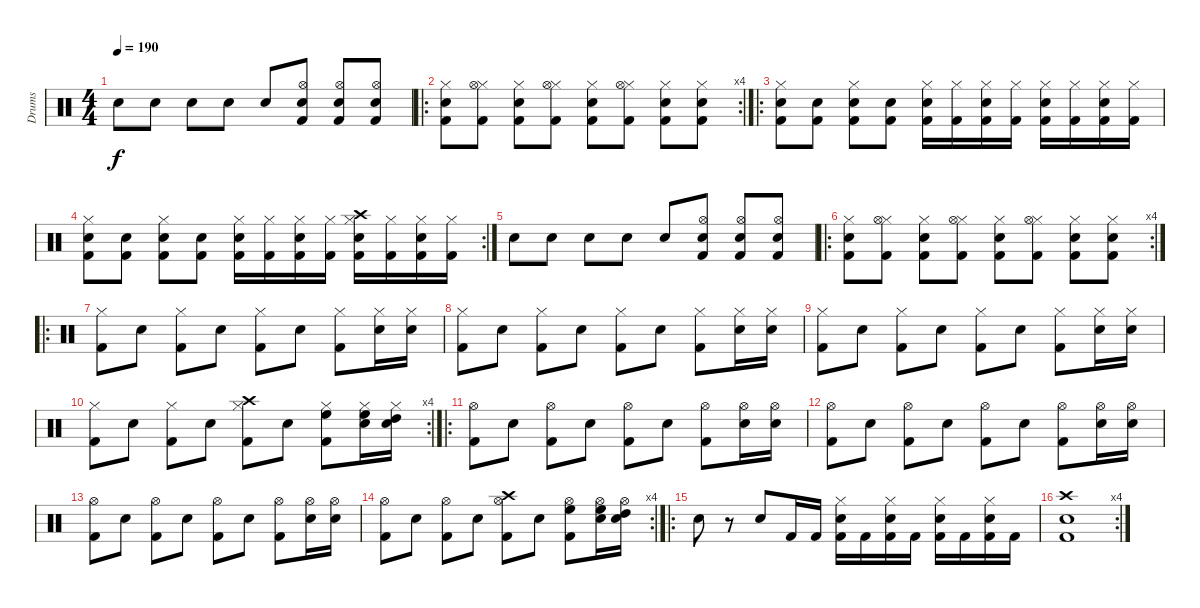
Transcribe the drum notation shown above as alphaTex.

\track ("Drums" "Drums") {instrument percussion}
\staff {score}
\articulation defaults
\ts (4 4)
\tempo 190
\clef neutral
\ks c "Electric Snare (hit)".8{dy f} "Electric Snare (hit)".8 "Electric Snare (hit)".8 "Electric Snare (hit)".8 "Electric Snare (hit)".8
("Electric Snare (hit)" "Hi-Hat (open)" "Kick (hit) 2").8 ("Electric Snare (hit)" "Hi-Hat (open)" "Kick (hit) 2").8 ("Electric Snare (hit)" "Hi-Hat (open)" "Kick (hit) 2").8 |
\ro
\rc 4
("Hi-Hat (closed)" "Electric Snare (hit)" "Kick (hit) 2").8 ("Hi-Hat (closed)" "Hi-Hat (open)" "Kick (hit) 2").8 ("Hi-Hat (closed)" "Electric Snare (hit)" "Kick (hit) 2").8 ("Hi-Hat (closed)" "Hi-Hat (open)" "Kick (hit) 2").8 ("Hi-Hat (closed)" "Electric Snare (hit)" "Kick (hit) 2").8 ("Hi-Hat (closed)" "Hi-Hat (open)" "Kick (hit) 2").8 ("Hi-Hat (closed)" "Electric Snare (hit)" "Kick (hit) 2").8 ("Hi-Hat (closed)" "Electric Snare (hit)" "Kick (hit) 2").8 |
\ro
("Electric Snare (hit)" "Hi-Hat (closed)" "Kick (hit) 2").8 ("Electric Snare (hit)" "Kick (hit) 2").8 ("Electric Snare (hit)" "Hi-Hat (closed)" "Kick (hit) 2").8 ("Electric Snare (hit)" "Kick (hit) 2").8 ("Electric Snare (hit)" "Hi-Hat (closed)" "Kick (hit) 2").16 ("Hi-Hat (closed)" "Kick (hit) 2").16 ("Electric Snare (hit)" "Hi-Hat (closed)" "Kick (hit) 2").16 ("Hi-Hat (closed)" "Kick (hit) 2").16 ("Electric Snare (hit)" "Hi-Hat (closed)" "Kick (hit) 2").16 ("Hi-Hat (closed)" "Kick (hit) 2").16 ("Electric Snare (hit)" "Hi-Hat (closed)" "Kick (hit) 2").16 ("Hi-Hat (closed)" "Kick (hit) 2").16 |
\rc 2
("Electric Snare (hit)" "Hi-Hat (closed)" "Kick (hit) 2").8 ("Electric Snare (hit)" "Kick (hit) 2").8 ("Electric Snare (hit)" "Hi-Hat (closed)" "Kick (hit) 2").8 ("Electric Snare (hit)" "Kick (hit) 2").8 ("Electric Snare (hit)" "Hi-Hat (closed)" "Kick (hit) 2").16 ("Hi-Hat (closed)" "Kick (hit) 2").16 ("Electric Snare (hit)" "Hi-Hat (closed)" "Kick (hit) 2").16 ("Hi-Hat (closed)" "Kick (hit) 2").16 ("Electric Snare (hit)" "Hi-Hat (closed)" "Crash high (hit)" "Kick (hit) 2").16 ("Hi-Hat (closed)" "Kick (hit) 2").16 ("Electric Snare (hit)" "Hi-Hat (closed)" "Kick (hit) 2").16 ("Hi-Hat (closed)" "Kick (hit) 2").16 |
"Electric Snare (hit)".8 "Electric Snare (hit)".8 "Electric Snare (hit)".8 "Electric Snare (hit)".8 "Electric Snare (hit)".8 ("Electric Snare (hit)" "Hi-Hat (open)" "Kick (hit) 2").8 ("Electric Snare (hit)" "Hi-Hat (open)" "Kick (hit) 2").8 ("Electric Snare (hit)" "Hi-Hat (open)" "Kick (hit) 2").8 |
\ro
\rc 4
("Hi-Hat (closed)" "Electric Snare (hit)" "Kick (hit) 2").8 ("Hi-Hat (closed)" "Hi-Hat (open)" "Kick (hit) 2").8 ("Hi-Hat (closed)" "Electric Snare (hit)" "Kick (hit) 2").8 ("Hi-Hat (closed)" "Hi-Hat (open)" "Kick (hit) 2").8 ("Hi-Hat (closed)" "Electric Snare (hit)" "Kick (hit) 2").8 ("Hi-Hat (closed)" "Hi-Hat (open)" "Kick (hit) 2").8 ("Hi-Hat (closed)" "Electric Snare (hit)" "Kick (hit) 2").8 ("Hi-Hat (closed)" "Electric Snare (hit)" "Kick (hit) 2").8 |
\ro
("Hi-Hat (closed)" "Kick (hit) 2").8 "Electric Snare (hit)".8 ("Hi-Hat (closed)" "Kick (hit) 2").8 "Electric Snare (hit)".8 ("Hi-Hat (closed)" "Kick (hit) 2").8 "Electric Snare (hit)".8 ("Hi-Hat (closed)" "Kick (hit) 2").8 ("Hi-Hat (closed)" "Electric Snare (hit)").16 ("Hi-Hat (closed)" "Electric Snare (hit)").16 |
("Hi-Hat (closed)" "Kick (hit) 2").8 "Electric Snare (hit)".8 ("Hi-Hat (closed)" "Kick (hit) 2").8 "Electric Snare (hit)".8 ("Hi-Hat (closed)" "Kick (hit) 2").8 "Electric Snare (hit)".8 ("Hi-Hat (closed)" "Kick (hit) 2").8 ("Hi-Hat (closed)" "Electric Snare (hit)").16 ("Hi-Hat (closed)" "Electric Snare (hit)").16 |
("Hi-Hat (closed)" "Kick (hit) 2").8 "Electric Snare (hit)".8 ("Hi-Hat (closed)" "Kick (hit) 2").8 "Electric Snare (hit)".8 ("Hi-Hat (closed)" "Kick (hit) 2").8 "Electric Snare (hit)".8 ("Hi-Hat (closed)" "Kick (hit) 2").8 ("Hi-Hat (closed)" "Electric Snare (hit)").16 ("Hi-Hat (closed)" "Electric Snare (hit)").16 |
\rc 4
("Hi-Hat (closed)" "Kick (hit) 2").8 "Electric Snare (hit)".8 ("Hi-Hat (closed)" "Kick (hit) 2").8 "Electric Snare (hit)".8 ("Hi-Hat (closed)" "Crash high (hit)" "Kick (hit) 2").8 "Electric Snare (hit)".8 ("Hi-Hat (closed)" "High Floor Tom (hit)" "Kick (hit) 2").8 ("Hi-Hat (closed)" "High Floor Tom (hit)" "Electric Snare (hit)").16 ("Hi-Hat (closed)" "High Tom (hit)" "Electric Snare (hit)").16 |
\ro
("Hi-Hat (open)" "Kick (hit) 2").8 "Electric Snare (hit)".8 ("Hi-Hat (open)" "Kick (hit) 2").8 "Electric Snare (hit)".8 ("Hi-Hat (open)" "Kick (hit) 2").8 "Electric Snare (hit)".8 ("Hi-Hat (open)" "Kick (hit) 2").8 ("Hi-Hat (open)" "Electric Snare (hit)").16 ("Hi-Hat (open)" "Electric Snare (hit)").16 |
("Hi-Hat (open)" "Kick (hit) 2").8 "Electric Snare (hit)".8 ("Hi-Hat (open)" "Kick (hit) 2").8 "Electric Snare (hit)".8 ("Hi-Hat (open)" "Kick (hit) 2").8 "Electric Snare (hit)".8 ("Hi-Hat (open)" "Kick (hit) 2").8 ("Hi-Hat (open)" "Electric Snare (hit)").16 ("Hi-Hat (open)" "Electric Snare (hit)").16 |
("Hi-Hat (open)" "Kick (hit) 2").8 "Electric Snare (hit)".8 ("Hi-Hat (open)" "Kick (hit) 2").8 "Electric Snare (hit)".8 ("Hi-Hat (open)" "Kick (hit) 2").8 "Electric Snare (hit)".8 ("Hi-Hat (open)" "Kick (hit) 2").8 ("Hi-Hat (open)" "Electric Snare (hit)").16 ("Hi-Hat (open)" "Electric Snare (hit)").16 |
\rc 4
("Hi-Hat (open)" "Kick (hit) 2").8 "Electric Snare (hit)".8 ("Hi-Hat (open)" "Kick (hit) 2").8 "Electric Snare (hit)".8 ("Hi-Hat (open)" "Crash high (hit)" "Kick (hit) 2").8 "Electric Snare (hit)".8 ("Hi-Hat (open)" "High Floor Tom (hit)" "Kick (hit) 2").8 ("Hi-Hat (open)" "High Floor Tom (hit)" "Electric Snare (hit)").16 ("Hi-Hat (open)" "High Tom (hit)" "Electric Snare (hit)").16 |
\ro "Electric Snare (hit)".8
r.8 "Electric Snare (hit)".8 "Kick (hit) 2".16 "Kick (hit) 2".16 ("Hi-Hat (closed)" "Electric Snare (hit)" "Kick (hit) 2").16 "Kick (hit) 2".16 ("Hi-Hat (closed)" "Electric Snare (hit)" "Kick (hit) 2").16 "Kick (hit) 2".16 ("Hi-Hat (closed)" "Electric Snare (hit)" "Kick (hit) 2").16 "Kick (hit) 2".16 ("Hi-Hat (closed)" "Electric Snare (hit)" "Kick (hit) 2").16 "Kick (hit) 2".16 |
\rc 4
("Electric Snare (hit)" "Crash high (hit)" "Kick (hit) 2").1
